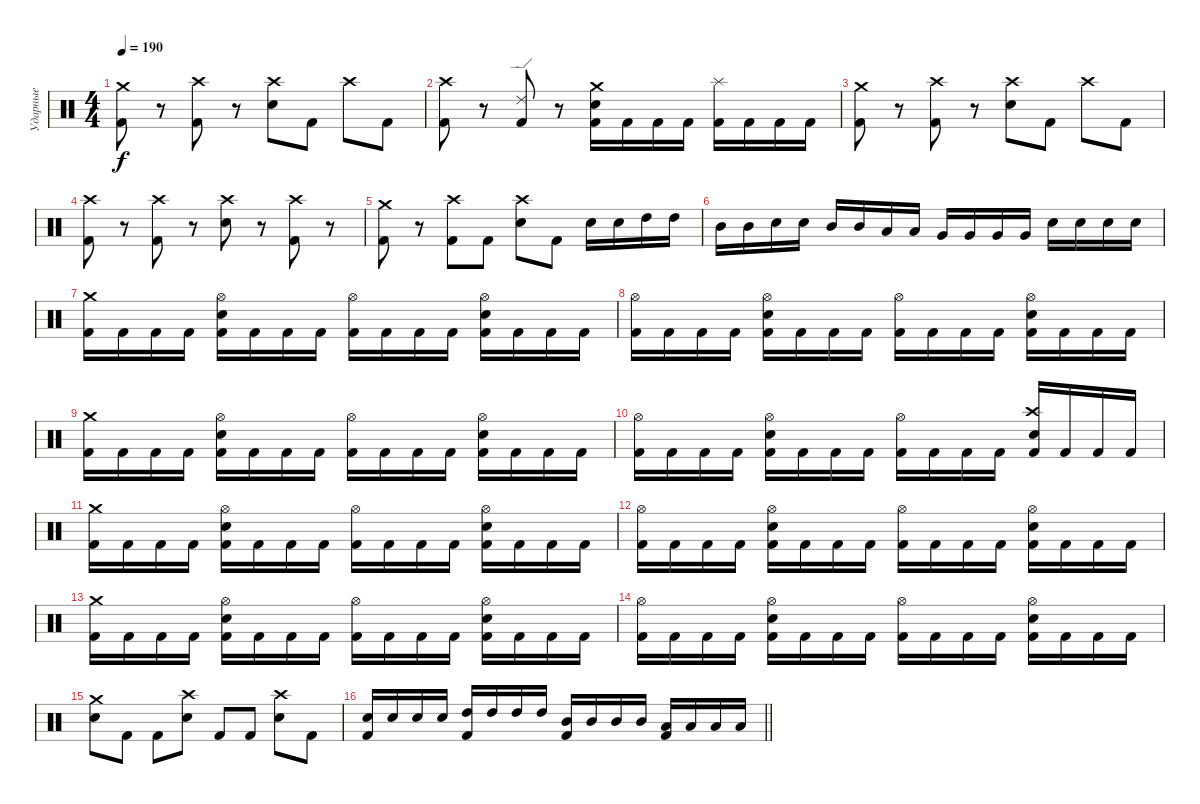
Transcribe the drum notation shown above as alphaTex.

\track ("Ударные" "Ударные") {instrument percussion}
\staff {score}
\articulation defaults
\ts (4 4)
\tempo 190
\clef neutral
\ks c
("Crash medium (hit)" "Kick (hit) 2").8{dy f} r.8 ("Crash high (hit)" "Kick (hit) 2").8 r.8 ("Crash high (hit)" "Electric Snare (hit)").8 "Kick (hit) 2".8 "Crash high (hit)".8 "Kick (hit) 2".8 |
("Crash high (hit)" "Kick (hit) 2").8 r.8 ("Ride (edge) 2" "Kick (hit) 2").8 r.8 ("Crash medium (hit)" "Electric Snare (hit)" "Kick (hit) 2").16 "Kick (hit) 2".16 "Kick (hit) 2".16 "Kick (hit) 2".16 ("Splash (hit)" "Kick (hit) 2").16 "Kick (hit) 2".16 "Kick (hit) 2".16 "Kick (hit) 2".16 |
("Crash medium (hit)" "Kick (hit) 2").8 r.8 ("Crash high (hit)" "Kick (hit) 2").8 r.8 ("Crash high (hit)" "Electric Snare (hit)").8 "Kick (hit) 2".8 "Crash high (hit)".8 "Kick (hit) 2".8 |
("Crash high (hit)" "Kick (hit) 2").8 r.8 ("Crash high (hit)" "Kick (hit) 2").8 r.8 ("Crash high (hit)" "Electric Snare (hit)").8 r.8 ("Crash high (hit)" "Kick (hit) 2").8 r.8 |
("Crash medium (hit)" "Kick (hit) 2").8 r.8 ("Crash high (hit)" "Kick (hit) 2").8 "Kick (hit) 2".8 ("Crash high (hit)" "Electric Snare (hit)").8 "Kick (hit) 2".8 "Electric Snare (hit)".16 "Electric Snare (hit)".16 "High Tom (hit)".16 "High Tom (hit)".16 |
"Mid Tom (hit)".16 "Mid Tom (hit)".16 "Electric Snare (hit)".16 "Electric Snare (hit)".16 "Mid Tom (hit)".16 "Mid Tom (hit)".16 "Low Tom (hit)".16 "Low Tom (hit)".16 "Very Low Tom (hit)".16 "Very Low Tom (hit)".16 "Very Low Tom (hit)".16 "Very Low Tom (hit)".16 "Electric Snare (hit)".16 "Electric Snare (hit)".16 "Electric Snare (hit)".16 "Electric Snare (hit)".16 |
("Crash medium (hit)" "Kick (hit) 2").16 "Kick (hit) 2".16 "Kick (hit) 2".16 "Kick (hit) 2".16 ("Hi-Hat (open)" "Electric Snare (hit)" "Kick (hit) 2").16 "Kick (hit) 2".16 "Kick (hit) 2".16 "Kick (hit) 2".16 ("Hi-Hat (open)" "Kick (hit) 2").16 "Kick (hit) 2".16 "Kick (hit) 2".16 "Kick (hit) 2".16 ("Hi-Hat (open)" "Electric Snare (hit)" "Kick (hit) 2").16 "Kick (hit) 2".16 "Kick (hit) 2".16 "Kick (hit) 2".16 |
("Hi-Hat (open)" "Kick (hit) 2").16 "Kick (hit) 2".16 "Kick (hit) 2".16 "Kick (hit) 2".16 ("Hi-Hat (open)" "Electric Snare (hit)" "Kick (hit) 2").16 "Kick (hit) 2".16 "Kick (hit) 2".16 "Kick (hit) 2".16 ("Hi-Hat (open)" "Kick (hit) 2").16 "Kick (hit) 2".16 "Kick (hit) 2".16 "Kick (hit) 2".16 ("Hi-Hat (open)" "Electric Snare (hit)" "Kick (hit) 2").16 "Kick (hit) 2".16 "Kick (hit) 2".16 "Kick (hit) 2".16 |
("Crash medium (hit)" "Kick (hit) 2").16 "Kick (hit) 2".16 "Kick (hit) 2".16 "Kick (hit) 2".16 ("Hi-Hat (open)" "Electric Snare (hit)" "Kick (hit) 2").16 "Kick (hit) 2".16 "Kick (hit) 2".16 "Kick (hit) 2".16 ("Hi-Hat (open)" "Kick (hit) 2").16 "Kick (hit) 2".16 "Kick (hit) 2".16 "Kick (hit) 2".16 ("Hi-Hat (open)" "Electric Snare (hit)" "Kick (hit) 2").16 "Kick (hit) 2".16 "Kick (hit) 2".16 "Kick (hit) 2".16 |
("Hi-Hat (open)" "Kick (hit) 2").16 "Kick (hit) 2".16 "Kick (hit) 2".16 "Kick (hit) 2".16 ("Hi-Hat (open)" "Electric Snare (hit)" "Kick (hit) 2").16 "Kick (hit) 2".16 "Kick (hit) 2".16 "Kick (hit) 2".16 ("Hi-Hat (open)" "Kick (hit) 2").16 "Kick (hit) 2".16 "Kick (hit) 2".16 "Kick (hit) 2".16 ("Crash high (hit)" "Electric Snare (hit)" "Kick (hit) 2").16 "Kick (hit) 2".16 "Kick (hit) 2".16 "Kick (hit) 2".16 |
("Crash medium (hit)" "Kick (hit) 2").16 "Kick (hit) 2".16 "Kick (hit) 2".16 "Kick (hit) 2".16 ("Hi-Hat (open)" "Electric Snare (hit)" "Kick (hit) 2").16 "Kick (hit) 2".16 "Kick (hit) 2".16 "Kick (hit) 2".16 ("Hi-Hat (open)" "Kick (hit) 2").16 "Kick (hit) 2".16 "Kick (hit) 2".16 "Kick (hit) 2".16 ("Hi-Hat (open)" "Electric Snare (hit)" "Kick (hit) 2").16 "Kick (hit) 2".16 "Kick (hit) 2".16 "Kick (hit) 2".16 |
("Hi-Hat (open)" "Kick (hit) 2").16 "Kick (hit) 2".16 "Kick (hit) 2".16 "Kick (hit) 2".16 ("Hi-Hat (open)" "Electric Snare (hit)" "Kick (hit) 2").16 "Kick (hit) 2".16 "Kick (hit) 2".16 "Kick (hit) 2".16 ("Hi-Hat (open)" "Kick (hit) 2").16 "Kick (hit) 2".16 "Kick (hit) 2".16 "Kick (hit) 2".16 ("Hi-Hat (open)" "Electric Snare (hit)" "Kick (hit) 2").16 "Kick (hit) 2".16 "Kick (hit) 2".16 "Kick (hit) 2".16 |
("Crash medium (hit)" "Kick (hit) 2").16 "Kick (hit) 2".16 "Kick (hit) 2".16 "Kick (hit) 2".16 ("Hi-Hat (open)" "Electric Snare (hit)" "Kick (hit) 2").16 "Kick (hit) 2".16 "Kick (hit) 2".16 "Kick (hit) 2".16 ("Hi-Hat (open)" "Kick (hit) 2").16 "Kick (hit) 2".16 "Kick (hit) 2".16 "Kick (hit) 2".16 ("Hi-Hat (open)" "Electric Snare (hit)" "Kick (hit) 2").16 "Kick (hit) 2".16 "Kick (hit) 2".16 "Kick (hit) 2".16 |
("Hi-Hat (open)" "Kick (hit) 2").16 "Kick (hit) 2".16 "Kick (hit) 2".16 "Kick (hit) 2".16 ("Hi-Hat (open)" "Electric Snare (hit)" "Kick (hit) 2").16 "Kick (hit) 2".16 "Kick (hit) 2".16 "Kick (hit) 2".16 ("Hi-Hat (open)" "Kick (hit) 2").16 "Kick (hit) 2".16 "Kick (hit) 2".16 "Kick (hit) 2".16 ("Hi-Hat (open)" "Electric Snare (hit)" "Kick (hit) 2").16 "Kick (hit) 2".16 "Kick (hit) 2".16 "Kick (hit) 2".16 |
("Crash medium (hit)" "Electric Snare (hit)").8 "Kick (hit) 2".8 "Kick (hit) 2".8 ("Crash high (hit)" "Electric Snare (hit)").8 "Kick (hit) 2".8 "Kick (hit) 2".8 ("Crash high (hit)" "Electric Snare (hit)").8 "Kick (hit) 2".8 |
\barLineRight lightlight
("Electric Snare (hit)" "Kick (hit) 2").16 "Electric Snare (hit)".16 "Electric Snare (hit)".16 "Electric Snare (hit)".16 ("High Tom (hit)" "Kick (hit) 2").16 "High Tom (hit)".16 "High Tom (hit)".16 "High Tom (hit)".16 ("Mid Tom (hit)" "Kick (hit) 2").16 "Mid Tom (hit)".16 "Mid Tom (hit)".16 "Mid Tom (hit)".16 ("Low Tom (hit)" "Kick (hit) 2").16 "Low Tom (hit)".16 "Low Tom (hit)".16 "Low Tom (hit)".16
